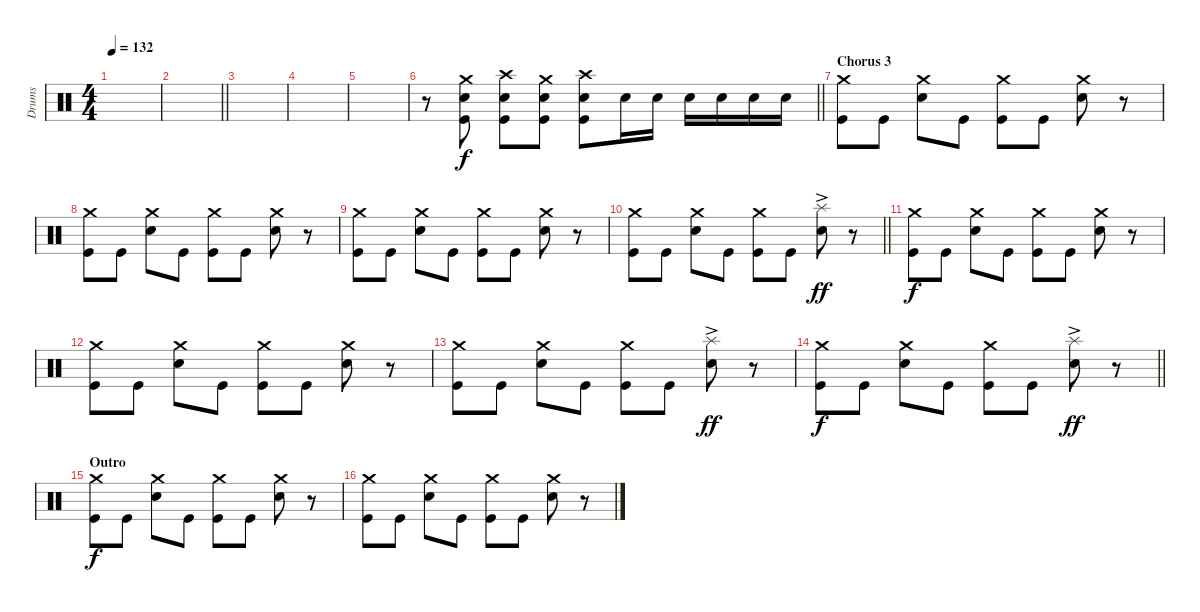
\track ("Drums" "Drums") {instrument percussion}
\staff {score}
\articulation defaults
\ts (4 4)
\tempo 132
\clef neutral
\ks c
|
\barLineRight lightlight
|
|
|
|
\barLineRight lightlight
r.8 ("Crash medium (hit)" "Snare (hit) 2" "Kick (hit)").8{dy f} ("Crash high (hit)" "Snare (hit) 2" "Kick (hit)").8 ("Crash medium (hit)" "Snare (hit) 2" "Kick (hit)").8 ("Crash high (hit)" "Snare (hit) 2" "Kick (hit)").8 "Snare (hit) 2".16 "Snare (hit) 2".16 "Snare (hit) 2".16 "Snare (hit) 2".16 "Snare (hit) 2".16 "Snare (hit) 2".16 |
\section ("" "Chorus 3")
("Crash medium (hit)" "Kick (hit)").8 "Kick (hit)".8 ("Crash medium (hit)" "Snare (hit) 2").8 "Kick (hit)".8 ("Crash medium (hit)" "Kick (hit)").8 "Kick (hit)".8 ("Crash medium (hit)" "Snare (hit) 2").8 r.8 |
("Crash medium (hit)" "Kick (hit)").8 "Kick (hit)".8 ("Crash medium (hit)" "Snare (hit) 2").8 "Kick (hit)".8 ("Crash medium (hit)" "Kick (hit)").8 "Kick (hit)".8 ("Crash medium (hit)" "Snare (hit) 2").8 r.8 |
("Crash medium (hit)" "Kick (hit)").8 "Kick (hit)".8 ("Crash medium (hit)" "Snare (hit) 2").8 "Kick (hit)".8 ("Crash medium (hit)" "Kick (hit)").8 "Kick (hit)".8 ("Crash medium (hit)" "Snare (hit) 2").8 r.8 |
\barLineRight lightlight
("Crash medium (hit)" "Kick (hit)").8 "Kick (hit)".8 ("Crash medium (hit)" "Snare (hit) 2").8 "Kick (hit)".8 ("Crash medium (hit)" "Kick (hit)").8 "Kick (hit)".8 ("Splash (hit)"{ac} "Snare (hit) 2").8{dy ff} r.8 |
("Crash medium (hit)" "Kick (hit)").8{dy f} "Kick (hit)".8 ("Crash medium (hit)" "Snare (hit) 2").8 "Kick (hit)".8 ("Crash medium (hit)" "Kick (hit)").8 "Kick (hit)".8 ("Crash medium (hit)" "Snare (hit) 2").8 r.8 |
("Crash medium (hit)" "Kick (hit)").8 "Kick (hit)".8 ("Crash medium (hit)" "Snare (hit) 2").8 "Kick (hit)".8 ("Crash medium (hit)" "Kick (hit)").8 "Kick (hit)".8 ("Crash medium (hit)" "Snare (hit) 2").8 r.8 |
("Crash medium (hit)" "Kick (hit)").8 "Kick (hit)".8 ("Crash medium (hit)" "Snare (hit) 2").8 "Kick (hit)".8 ("Crash medium (hit)" "Kick (hit)").8 "Kick (hit)".8 ("Splash (hit)"{ac} "Snare (hit) 2").8{dy ff} r.8 |
\barLineRight lightlight
("Crash medium (hit)" "Kick (hit)").8{dy f} "Kick (hit)".8 ("Crash medium (hit)" "Snare (hit) 2").8 "Kick (hit)".8 ("Crash medium (hit)" "Kick (hit)").8 "Kick (hit)".8 ("Splash (hit)"{ac} "Snare (hit) 2").8{dy ff} r.8 |
\section ("" "Outro")
("Crash medium (hit)" "Kick (hit)").8{dy f} "Kick (hit)".8 ("Crash medium (hit)" "Snare (hit) 2").8 "Kick (hit)".8 ("Crash medium (hit)" "Kick (hit)").8 "Kick (hit)".8 ("Crash medium (hit)" "Snare (hit) 2").8 r.8 |
("Crash medium (hit)" "Kick (hit)").8 "Kick (hit)".8 ("Crash medium (hit)" "Snare (hit) 2").8 "Kick (hit)".8 ("Crash medium (hit)" "Kick (hit)").8 "Kick (hit)".8 ("Crash medium (hit)" "Snare (hit) 2").8 r.8
